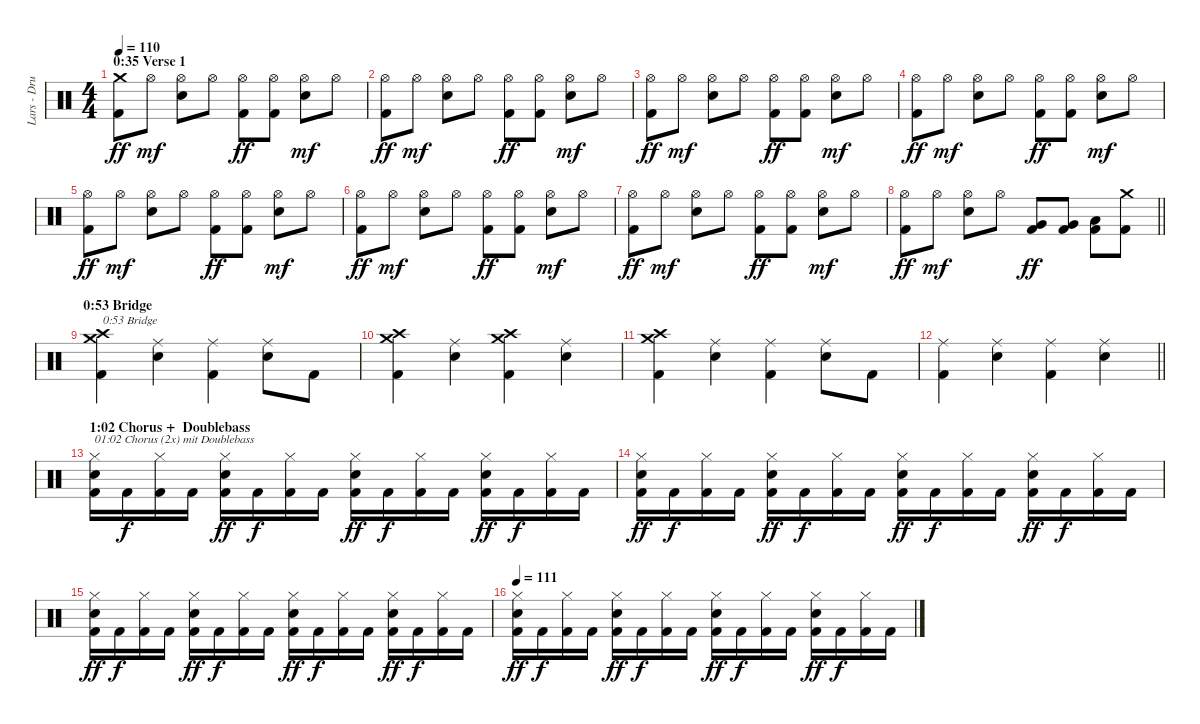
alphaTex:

\track ("Lars - Drums + tempi marker" "Lars - Dru") {instrument percussion}
\staff {score}
\articulation defaults
\ts (4 4)
\section ("" "0:35 Verse 1")
\tempo 110
\clef neutral
\ks c
("Crash medium (hit)" "Kick (hit) 2").8{dy ff} "Hi-Hat (open)".8{dy mf} ("Electric Snare (hit)" "Hi-Hat (open)").8 "Hi-Hat (open)".8 ("Hi-Hat (open)" "Kick (hit) 2").8{dy ff} ("Hi-Hat (open)" "Kick (hit) 2").8 ("Electric Snare (hit)" "Hi-Hat (open)").8{dy mf} "Hi-Hat (open)".8 |
("Hi-Hat (open)" "Kick (hit) 2").8{dy ff} "Hi-Hat (open)".8{dy mf} ("Electric Snare (hit)" "Hi-Hat (open)").8 "Hi-Hat (open)".8 ("Hi-Hat (open)" "Kick (hit) 2").8{dy ff} ("Hi-Hat (open)" "Kick (hit) 2").8 ("Electric Snare (hit)" "Hi-Hat (open)").8{dy mf} "Hi-Hat (open)".8 |
("Hi-Hat (open)" "Kick (hit) 2").8{dy ff} "Hi-Hat (open)".8{dy mf} ("Electric Snare (hit)" "Hi-Hat (open)").8 "Hi-Hat (open)".8 ("Hi-Hat (open)" "Kick (hit) 2").8{dy ff} ("Hi-Hat (open)" "Kick (hit) 2").8 ("Electric Snare (hit)" "Hi-Hat (open)").8{dy mf} "Hi-Hat (open)".8 |
("Hi-Hat (open)" "Kick (hit) 2").8{dy ff} "Hi-Hat (open)".8{dy mf} ("Electric Snare (hit)" "Hi-Hat (open)").8 "Hi-Hat (open)".8 ("Hi-Hat (open)" "Kick (hit) 2").8{dy ff} ("Hi-Hat (open)" "Kick (hit) 2").8 ("Electric Snare (hit)" "Hi-Hat (open)").8{dy mf} "Hi-Hat (open)".8 |
("Hi-Hat (open)" "Kick (hit) 2").8{dy ff} "Hi-Hat (open)".8{dy mf} ("Electric Snare (hit)" "Hi-Hat (open)").8 "Hi-Hat (open)".8 ("Hi-Hat (open)" "Kick (hit) 2").8{dy ff} ("Hi-Hat (open)" "Kick (hit) 2").8 ("Electric Snare (hit)" "Hi-Hat (open)").8{dy mf} "Hi-Hat (open)".8 |
("Hi-Hat (open)" "Kick (hit) 2").8{dy ff} "Hi-Hat (open)".8{dy mf} ("Electric Snare (hit)" "Hi-Hat (open)").8 "Hi-Hat (open)".8 ("Hi-Hat (open)" "Kick (hit) 2").8{dy ff} ("Hi-Hat (open)" "Kick (hit) 2").8 ("Electric Snare (hit)" "Hi-Hat (open)").8{dy mf} "Hi-Hat (open)".8 |
("Hi-Hat (open)" "Kick (hit) 2").8{dy ff} "Hi-Hat (open)".8{dy mf} ("Electric Snare (hit)" "Hi-Hat (open)").8 "Hi-Hat (open)".8 ("Hi-Hat (open)" "Kick (hit) 2").8{dy ff} ("Hi-Hat (open)" "Kick (hit) 2").8 ("Electric Snare (hit)" "Hi-Hat (open)").8{dy mf} "Hi-Hat (open)".8 |
\barLineRight lightlight
("Hi-Hat (open)" "Kick (hit) 2").8{dy ff} "Hi-Hat (open)".8{dy mf} ("Electric Snare (hit)" "Hi-Hat (open)").8 "Hi-Hat (open)".8 ("Very Low Tom (hit)" "Kick (hit) 2").8{dy ff} ("Very Low Tom (hit)" "Kick (hit) 2").8 ("Low Floor Tom (hit)" "Kick (hit) 2").8 ("Crash medium (hit)" "Kick (hit) 2").8 |
\section ("" "0:53 Bridge")
("Crash high (hit)" "Crash medium (hit)" "Kick (hit) 2").4{txt "0:53 Bridge"} ("Electric Snare (hit)" "Ride (middle)").4 ("Ride (middle)" "Kick (hit) 2").4 ("Electric Snare (hit)" "Ride (middle)").8 "Kick (hit) 2".8 |
("Crash high (hit)" "Crash medium (hit)" "Kick (hit) 2").4 ("Electric Snare (hit)" "Ride (middle)").4 ("Crash high (hit)" "Crash medium (hit)" "Kick (hit) 2").4 ("Electric Snare (hit)" "Ride (middle)").4 |
("Crash high (hit)" "Crash medium (hit)" "Kick (hit) 2").4 ("Electric Snare (hit)" "Ride (middle)").4 ("Ride (middle)" "Kick (hit) 2").4 ("Electric Snare (hit)" "Ride (middle)").8 "Kick (hit) 2".8 |
\barLineRight lightlight
("Ride (middle)" "Kick (hit) 2").4 ("Electric Snare (hit)" "Ride (middle)").4 ("Ride (middle)" "Kick (hit) 2").4 ("Electric Snare (hit)" "Ride (middle)").4 |
\section ("" "1:02 Chorus +  Doublebass ")
("Electric Snare (hit)" "Hi-Hat (closed)" "Kick (hit) 2").16{txt "01:02 Chorus (2x) mit Doublebass "} "Kick (hit) 2".16{dy f} ("Hi-Hat (closed)" "Kick (hit) 2").16 "Kick (hit) 2".16 ("Electric Snare (hit)" "Hi-Hat (closed)" "Kick (hit) 2").16{dy ff} "Kick (hit) 2".16{dy f} ("Hi-Hat (closed)" "Kick (hit) 2").16 "Kick (hit) 2".16 ("Electric Snare (hit)" "Hi-Hat (closed)" "Kick (hit) 2").16{dy ff} "Kick (hit) 2".16{dy f} ("Hi-Hat (closed)" "Kick (hit) 2").16 "Kick (hit) 2".16 ("Electric Snare (hit)" "Hi-Hat (closed)" "Kick (hit) 2").16{dy ff} "Kick (hit) 2".16{dy f} ("Hi-Hat (closed)" "Kick (hit) 2").16 "Kick (hit) 2".16 |
("Electric Snare (hit)" "Hi-Hat (closed)" "Kick (hit) 2").16{dy ff} "Kick (hit) 2".16{dy f} ("Hi-Hat (closed)" "Kick (hit) 2").16 "Kick (hit) 2".16 ("Electric Snare (hit)" "Hi-Hat (closed)" "Kick (hit) 2").16{dy ff} "Kick (hit) 2".16{dy f} ("Hi-Hat (closed)" "Kick (hit) 2").16 "Kick (hit) 2".16 ("Electric Snare (hit)" "Hi-Hat (closed)" "Kick (hit) 2").16{dy ff} "Kick (hit) 2".16{dy f} ("Hi-Hat (closed)" "Kick (hit) 2").16 "Kick (hit) 2".16 ("Electric Snare (hit)" "Hi-Hat (closed)" "Kick (hit) 2").16{dy ff} "Kick (hit) 2".16{dy f} ("Hi-Hat (closed)" "Kick (hit) 2").16 "Kick (hit) 2".16 |
("Electric Snare (hit)" "Hi-Hat (closed)" "Kick (hit) 2").16{dy ff} "Kick (hit) 2".16{dy f} ("Hi-Hat (closed)" "Kick (hit) 2").16 "Kick (hit) 2".16 ("Electric Snare (hit)" "Hi-Hat (closed)" "Kick (hit) 2").16{dy ff} "Kick (hit) 2".16{dy f} ("Hi-Hat (closed)" "Kick (hit) 2").16 "Kick (hit) 2".16 ("Electric Snare (hit)" "Hi-Hat (closed)" "Kick (hit) 2").16{dy ff} "Kick (hit) 2".16{dy f} ("Hi-Hat (closed)" "Kick (hit) 2").16 "Kick (hit) 2".16 ("Electric Snare (hit)" "Hi-Hat (closed)" "Kick (hit) 2").16{dy ff} "Kick (hit) 2".16{dy f} ("Hi-Hat (closed)" "Kick (hit) 2").16 "Kick (hit) 2".16 |
\tempo 111
("Electric Snare (hit)" "Hi-Hat (closed)" "Kick (hit) 2").16{dy ff} "Kick (hit) 2".16{dy f} ("Hi-Hat (closed)" "Kick (hit) 2").16 "Kick (hit) 2".16 ("Electric Snare (hit)" "Hi-Hat (closed)" "Kick (hit) 2").16{dy ff} "Kick (hit) 2".16{dy f} ("Hi-Hat (closed)" "Kick (hit) 2").16 "Kick (hit) 2".16 ("Electric Snare (hit)" "Hi-Hat (closed)" "Kick (hit) 2").16{dy ff} "Kick (hit) 2".16{dy f} ("Hi-Hat (closed)" "Kick (hit) 2").16 "Kick (hit) 2".16 ("Electric Snare (hit)" "Hi-Hat (closed)" "Kick (hit) 2").16{dy ff} "Kick (hit) 2".16{dy f} ("Hi-Hat (closed)" "Kick (hit) 2").16 "Kick (hit) 2".16
